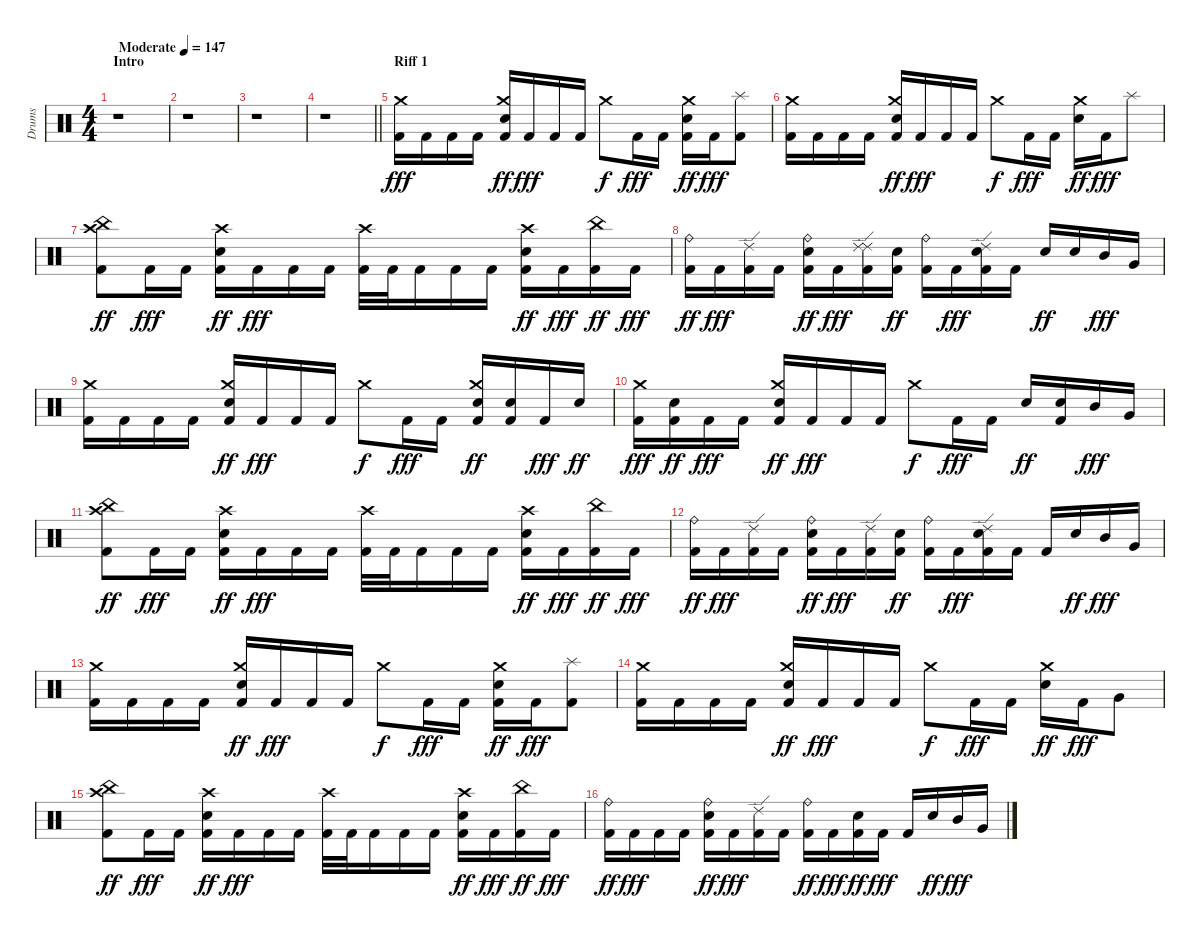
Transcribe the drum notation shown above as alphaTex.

\track ("Drums" "Drums") {instrument percussion}
\staff {score}
\articulation defaults
\ts (4 4)
\section ("" "Intro")
\tempo (147 "Moderate")
\clef neutral
\ks c
r.1{dy fff} |
r.1 |
r.1 |
\barLineRight lightlight
r.1 |
\section ("" "Riff 1")
("Kick (hit) 2" "Crash medium (hit)").16 "Kick (hit) 2".16 "Kick (hit) 2".16 "Kick (hit) 2".16 ("Kick (hit) 2" "Snare (hit) 2" "Crash medium (hit)").16{dy ff} "Kick (hit) 2".16{dy fff} "Kick (hit) 2".16 "Kick (hit) 2".16 "Crash medium (hit)".8{dy f} "Kick (hit) 2".16{dy fff} "Kick (hit) 2".16 ("Kick (hit) 2" "Snare (hit) 2" "Crash medium (hit)").16{dy ff} "Kick (hit) 2".16{dy fff} ("Kick (hit) 2" "Splash (hit)").8 |
("Kick (hit) 2" "Crash medium (hit)").16 "Kick (hit) 2".16 "Kick (hit) 2".16 "Kick (hit) 2".16 ("Kick (hit) 2" "Snare (hit) 2" "Crash medium (hit)").16{dy ff} "Kick (hit) 2".16{dy fff} "Kick (hit) 2".16 "Kick (hit) 2".16 "Crash medium (hit)".8{dy f} "Kick (hit) 2".16{dy fff} "Kick (hit) 2".16 ("Snare (hit) 2" "Crash medium (hit)").16{dy ff} "Kick (hit) 2".16{dy fff} "Splash (hit)".8 |
("Kick (hit) 2" "China (hit)" "Crash high (hit)").8{dy ff} "Kick (hit) 2".16{dy fff} "Kick (hit) 2".16 ("Kick (hit) 2" "Snare (hit) 2" "Crash high (hit)").16{dy ff} "Kick (hit) 2".16{dy fff} "Kick (hit) 2".16 "Kick (hit) 2".16 ("Kick (hit) 2" "Crash high (hit)").32 "Kick (hit) 2".32 "Kick (hit) 2".16 "Kick (hit) 2".16 "Kick (hit) 2".16 ("Kick (hit) 2" "Snare (hit) 2" "Crash high (hit)").16{dy ff} "Kick (hit) 2".16{dy fff} ("Kick (hit) 2" "China (hit)").16{dy ff} "Kick (hit) 2".16{dy fff} |
("Kick (hit) 2" "Ride (bell)").16{dy ff} "Kick (hit) 2".16{dy fff} ("Kick (hit) 2" "Ride (edge) 2").16 "Kick (hit) 2".16 ("Kick (hit) 2" "Snare (hit) 2" "Ride (bell)").16{dy ff} "Kick (hit) 2".16{dy fff} ("Kick (hit) 2" "Ride (edge) 2" "Ride (edge) 2").16 ("Kick (hit) 2" "Snare (hit) 2").16{dy ff} ("Kick (hit) 2" "Ride (bell)").16 "Kick (hit) 2".16{dy fff} ("Kick (hit) 2" "Snare (hit) 2" "Ride (edge) 2").16 "Kick (hit) 2".16 "Snare (hit) 2".16{dy ff} "Snare (hit) 2".16 "Mid Tom (hit)".16{dy fff} "Very Low Tom (hit)".16 |
("Kick (hit) 2" "Crash medium (hit)").16 "Kick (hit) 2".16 "Kick (hit) 2".16 "Kick (hit) 2".16 ("Kick (hit) 2" "Snare (hit) 2" "Crash medium (hit)").16{dy ff} "Kick (hit) 2".16{dy fff} "Kick (hit) 2".16 "Kick (hit) 2".16 "Crash medium (hit)".8{dy f} "Kick (hit) 2".16{dy fff} "Kick (hit) 2".16 ("Kick (hit) 2" "Snare (hit) 2" "Crash medium (hit)").16{dy ff} ("Kick (hit) 2" "Snare (hit) 2").16 "Kick (hit) 2".16{dy fff} "Snare (hit) 2".16{dy ff} |
("Kick (hit) 2" "Crash medium (hit)").16{dy fff} ("Kick (hit) 2" "Snare (hit) 2").16{dy ff} "Kick (hit) 2".16{dy fff} "Kick (hit) 2".16 ("Kick (hit) 2" "Snare (hit) 2" "Crash medium (hit)").16{dy ff} "Kick (hit) 2".16{dy fff} "Kick (hit) 2".16 "Kick (hit) 2".16 "Crash medium (hit)".8{dy f} "Kick (hit) 2".16{dy fff} "Kick (hit) 2".16 "Snare (hit) 2".16{dy ff} ("Kick (hit) 2" "Snare (hit) 2").16 "Mid Tom (hit)".16{dy fff} "Very Low Tom (hit)".16 |
("Kick (hit) 2" "China (hit)" "Crash high (hit)").8{dy ff} "Kick (hit) 2".16{dy fff} "Kick (hit) 2".16 ("Kick (hit) 2" "Snare (hit) 2" "Crash high (hit)").16{dy ff} "Kick (hit) 2".16{dy fff} "Kick (hit) 2".16 "Kick (hit) 2".16 ("Kick (hit) 2" "Crash high (hit)").32 "Kick (hit) 2".32 "Kick (hit) 2".16 "Kick (hit) 2".16 "Kick (hit) 2".16 ("Kick (hit) 2" "Snare (hit) 2" "Crash high (hit)").16{dy ff} "Kick (hit) 2".16{dy fff} ("Kick (hit) 2" "China (hit)").16{dy ff} "Kick (hit) 2".16{dy fff} |
("Kick (hit) 2" "Ride (bell)").16{dy ff} "Kick (hit) 2".16{dy fff} ("Kick (hit) 2" "Ride (edge) 2").16 "Kick (hit) 2".16 ("Kick (hit) 2" "Snare (hit) 2" "Ride (bell)").16{dy ff} "Kick (hit) 2".16{dy fff} ("Kick (hit) 2" "Ride (edge) 2").16 ("Kick (hit) 2" "Snare (hit) 2").16{dy ff} ("Kick (hit) 2" "Ride (bell)").16 "Kick (hit) 2".16{dy fff} ("Kick (hit) 2" "Snare (hit) 2" "Ride (edge) 2").16 "Kick (hit) 2".16 "Kick (hit) 2".16 "Snare (hit) 2".16{dy ff} "Mid Tom (hit)".16{dy fff} "Very Low Tom (hit)".16 |
("Kick (hit) 2" "Crash medium (hit)").16 "Kick (hit) 2".16 "Kick (hit) 2".16 "Kick (hit) 2".16 ("Kick (hit) 2" "Snare (hit) 2" "Crash medium (hit)").16{dy ff} "Kick (hit) 2".16{dy fff} "Kick (hit) 2".16 "Kick (hit) 2".16 "Crash medium (hit)".8{dy f} "Kick (hit) 2".16{dy fff} "Kick (hit) 2".16 ("Kick (hit) 2" "Snare (hit) 2" "Crash medium (hit)").16{dy ff} "Kick (hit) 2".16{dy fff} ("Kick (hit) 2" "Splash (hit)").8 |
("Kick (hit) 2" "Crash medium (hit)").16 "Kick (hit) 2".16 "Kick (hit) 2".16 "Kick (hit) 2".16 ("Kick (hit) 2" "Snare (hit) 2" "Crash medium (hit)").16{dy ff} "Kick (hit) 2".16{dy fff} "Kick (hit) 2".16 "Kick (hit) 2".16 "Crash medium (hit)".8{dy f} "Kick (hit) 2".16{dy fff} "Kick (hit) 2".16 ("Snare (hit) 2" "Crash medium (hit)").16{dy ff} "Kick (hit) 2".16{dy fff} "Very Low Tom (hit)".8 |
("Kick (hit) 2" "China (hit)" "Crash high (hit)").8{dy ff} "Kick (hit) 2".16{dy fff} "Kick (hit) 2".16 ("Kick (hit) 2" "Snare (hit) 2" "Crash high (hit)").16{dy ff} "Kick (hit) 2".16{dy fff} "Kick (hit) 2".16 "Kick (hit) 2".16 ("Kick (hit) 2" "Crash high (hit)").32 "Kick (hit) 2".32 "Kick (hit) 2".16 "Kick (hit) 2".16 "Kick (hit) 2".16 ("Kick (hit) 2" "Snare (hit) 2" "Crash high (hit)").16{dy ff} "Kick (hit) 2".16{dy fff} ("Kick (hit) 2" "China (hit)").16{dy ff} "Kick (hit) 2".16{dy fff} |
("Kick (hit) 2" "Ride (bell)").16{dy ff} "Kick (hit) 2".16{dy fff} "Kick (hit) 2".16 "Kick (hit) 2".16 ("Kick (hit) 2" "Snare (hit) 2" "Ride (bell)").16{dy ff} "Kick (hit) 2".16{dy fff} ("Kick (hit) 2" "Ride (edge) 2").16 "Kick (hit) 2".16 ("Kick (hit) 2" "Ride (bell)").16{dy ff} "Kick (hit) 2".16{dy fff} ("Kick (hit) 2" "Snare (hit) 2").16{dy ff} "Kick (hit) 2".16{dy fff} "Kick (hit) 2".16 "Snare (hit) 2".16{dy ff} "Mid Tom (hit)".16{dy fff} "Very Low Tom (hit)".16
